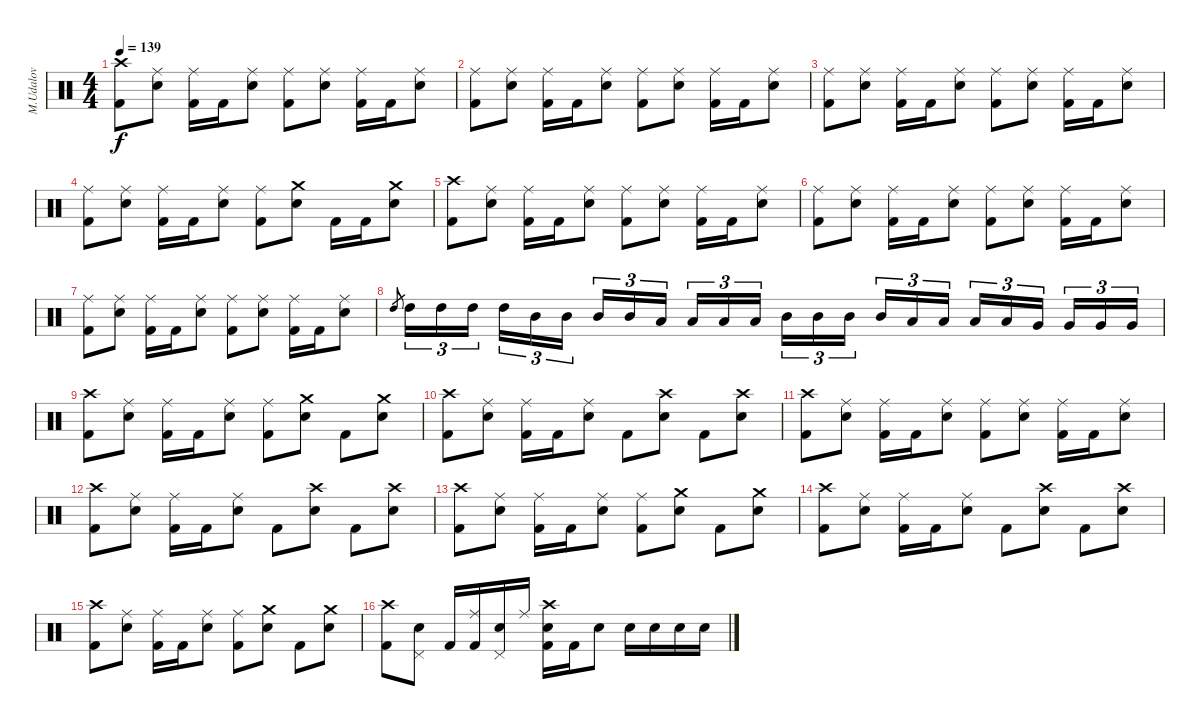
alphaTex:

\track ("M.Udalov" "M.Udalov") {instrument percussion}
\staff {score}
\articulation defaults
\ts (4 4)
\tempo 139
\clef neutral
\ks c
("Crash high (hit)" "Kick (hit) 2").8{dy f} ("Ride (middle)" "Snare (hit) 2").8 ("Ride (middle)" "Kick (hit) 2").16 "Kick (hit) 2".16 ("Ride (middle)" "Snare (hit) 2").8 ("Ride (middle)" "Kick (hit) 2").8 ("Ride (middle)" "Snare (hit) 2").8 ("Ride (middle)" "Kick (hit) 2").16 "Kick (hit) 2".16 ("Ride (middle)" "Snare (hit) 2").8 |
("Ride (middle)" "Kick (hit) 2").8 ("Ride (middle)" "Snare (hit) 2").8 ("Ride (middle)" "Kick (hit) 2").16 "Kick (hit) 2".16 ("Ride (middle)" "Snare (hit) 2").8 ("Ride (middle)" "Kick (hit) 2").8 ("Ride (middle)" "Snare (hit) 2").8 ("Ride (middle)" "Kick (hit) 2").16 "Kick (hit) 2".16 ("Ride (middle)" "Snare (hit) 2").8 |
("Ride (middle)" "Kick (hit) 2").8 ("Ride (middle)" "Snare (hit) 2").8 ("Ride (middle)" "Kick (hit) 2").16 "Kick (hit) 2".16 ("Ride (middle)" "Snare (hit) 2").8 ("Ride (middle)" "Kick (hit) 2").8 ("Ride (middle)" "Snare (hit) 2").8 ("Ride (middle)" "Kick (hit) 2").16 "Kick (hit) 2".16 ("Ride (middle)" "Snare (hit) 2").8 |
("Ride (middle)" "Kick (hit) 2").8 ("Ride (middle)" "Snare (hit) 2").8 ("Ride (middle)" "Kick (hit) 2").16 "Kick (hit) 2".16 ("Ride (middle)" "Snare (hit) 2").8 ("Ride (middle)" "Kick (hit) 2").8 ("Crash medium (hit)" "Snare (hit) 2").8 "Kick (hit) 2".16 "Kick (hit) 2".16 ("Crash medium (hit)" "Snare (hit) 2").8 |
("Crash high (hit)" "Kick (hit) 2").8 ("Ride (middle)" "Snare (hit) 2").8 ("Ride (middle)" "Kick (hit) 2").16 "Kick (hit) 2".16 ("Ride (middle)" "Snare (hit) 2").8 ("Ride (middle)" "Kick (hit) 2").8 ("Ride (middle)" "Snare (hit) 2").8 ("Ride (middle)" "Kick (hit) 2").16 "Kick (hit) 2".16 ("Ride (middle)" "Snare (hit) 2").8 |
("Ride (middle)" "Kick (hit) 2").8 ("Ride (middle)" "Snare (hit) 2").8 ("Ride (middle)" "Kick (hit) 2").16 "Kick (hit) 2".16 ("Ride (middle)" "Snare (hit) 2").8 ("Ride (middle)" "Kick (hit) 2").8 ("Ride (middle)" "Snare (hit) 2").8 ("Ride (middle)" "Kick (hit) 2").16 "Kick (hit) 2".16 ("Ride (middle)" "Snare (hit) 2").8 |
("Ride (middle)" "Kick (hit) 2").8 ("Ride (middle)" "Snare (hit) 2").8 ("Ride (middle)" "Kick (hit) 2").16 "Kick (hit) 2".16 ("Ride (middle)" "Snare (hit) 2").8 ("Ride (middle)" "Kick (hit) 2").8 ("Ride (middle)" "Snare (hit) 2").8 ("Ride (middle)" "Kick (hit) 2").16 "Kick (hit) 2".16 ("Ride (middle)" "Snare (hit) 2").8 |
"High Tom (hit)".8{gr} "High Tom (hit)".16{tu (3 2)} "High Tom (hit)".16{tu (3 2)} "High Tom (hit)".16{tu (3 2)} "High Tom (hit)".16{tu (3 2)} "Mid Tom (hit)".16{tu (3 2)} "Mid Tom (hit)".16{tu (3 2)} "Mid Tom (hit)".16{tu (3 2)} "Mid Tom (hit)".16{tu (3 2)} "Low Tom (hit)".16{tu (3 2)} "Low Tom (hit)".16{tu (3 2)} "Low Tom (hit)".16{tu (3 2)} "Low Tom (hit)".16{tu (3 2)} "Mid Tom (hit)".16{tu (3 2)} "Mid Tom (hit)".16{tu (3 2)} "Mid Tom (hit)".16{tu (3 2)} "Mid Tom (hit)".16{tu (3 2)} "Low Tom (hit)".16{tu (3 2)} "Low Tom (hit)".16{tu (3 2)} "Low Tom (hit)".16{tu (3 2)} "Low Tom (hit)".16{tu (3 2)} "Very Low Tom (hit)".16{tu (3 2)} "Very Low Tom (hit)".16{tu (3 2)} "Very Low Tom (hit)".16{tu (3 2)} "Very Low Tom (hit)".16{tu (3 2)} |
("Crash high (hit)" "Kick (hit) 2").8 ("Ride (middle)" "Snare (hit) 2").8 ("Ride (middle)" "Kick (hit) 2").16 "Kick (hit) 2".16 ("Ride (middle)" "Snare (hit) 2").8 ("Ride (middle)" "Kick (hit) 2").8 ("Crash medium (hit)" "Snare (hit) 2").8 "Kick (hit) 2".8 ("Crash medium (hit)" "Snare (hit) 2").8 |
("Crash high (hit)" "Kick (hit) 2").8 ("Ride (middle)" "Snare (hit) 2").8 ("Ride (middle)" "Kick (hit) 2").16 "Kick (hit) 2".16 ("Ride (middle)" "Snare (hit) 2").8 "Kick (hit) 2".8 ("Crash high (hit)" "Snare (hit) 2").8 "Kick (hit) 2".8 ("Crash high (hit)" "Snare (hit) 2").8 |
("Crash high (hit)" "Kick (hit) 2").8 ("Ride (middle)" "Snare (hit) 2").8 ("Ride (middle)" "Kick (hit) 2").16 "Kick (hit) 2".16 ("Ride (middle)" "Snare (hit) 2").8 ("Ride (middle)" "Kick (hit) 2").8 ("Ride (middle)" "Snare (hit) 2").8 ("Ride (middle)" "Kick (hit) 2").16 "Kick (hit) 2".16 ("Ride (middle)" "Snare (hit) 2").8 |
("Crash high (hit)" "Kick (hit) 2").8 ("Ride (middle)" "Snare (hit) 2").8 ("Ride (middle)" "Kick (hit) 2").16 "Kick (hit) 2".16 ("Ride (middle)" "Snare (hit) 2").8 "Kick (hit) 2".8 ("Crash high (hit)" "Snare (hit) 2").8 "Kick (hit) 2".8 ("Crash high (hit)" "Snare (hit) 2").8 |
("Crash high (hit)" "Kick (hit) 2").8 ("Ride (middle)" "Snare (hit) 2").8 ("Ride (middle)" "Kick (hit) 2").16 "Kick (hit) 2".16 ("Ride (middle)" "Snare (hit) 2").8 ("Ride (middle)" "Kick (hit) 2").8 ("Crash medium (hit)" "Snare (hit) 2").8 "Kick (hit) 2".8 ("Crash medium (hit)" "Snare (hit) 2").8 |
("Crash high (hit)" "Kick (hit) 2").8 ("Ride (middle)" "Snare (hit) 2").8 ("Ride (middle)" "Kick (hit) 2").16 "Kick (hit) 2".16 ("Ride (middle)" "Snare (hit) 2").8 "Kick (hit) 2".8 ("Crash high (hit)" "Snare (hit) 2").8 "Kick (hit) 2".8 ("Crash high (hit)" "Snare (hit) 2").8 |
("Crash high (hit)" "Kick (hit) 2").8 ("Ride (middle)" "Snare (hit) 2").8 ("Ride (middle)" "Kick (hit) 2").16 "Kick (hit) 2".16 ("Ride (middle)" "Snare (hit) 2").8 ("Ride (middle)" "Kick (hit) 2").8 ("Crash medium (hit)" "Snare (hit) 2").8 "Kick (hit) 2".8 ("Crash medium (hit)" "Snare (hit) 2").8 |
("Crash high (hit)" "Kick (hit) 2").8 ("Pedal Hi-Hat (hit)" "Snare (hit) 2").8 "Kick (hit) 2".16 ("Ride (middle)" "Kick (hit) 2").16 ("Pedal Hi-Hat (hit)" "Snare (hit) 2").16 "Ride (middle)".16 ("Crash high (hit)" "Snare (hit) 2" "Kick (hit) 2").16 "Kick (hit) 2".16 "Snare (hit) 2".8 "Snare (hit) 2".16 "Snare (hit) 2".16 "Snare (hit) 2".16 "Snare (hit) 2".16
